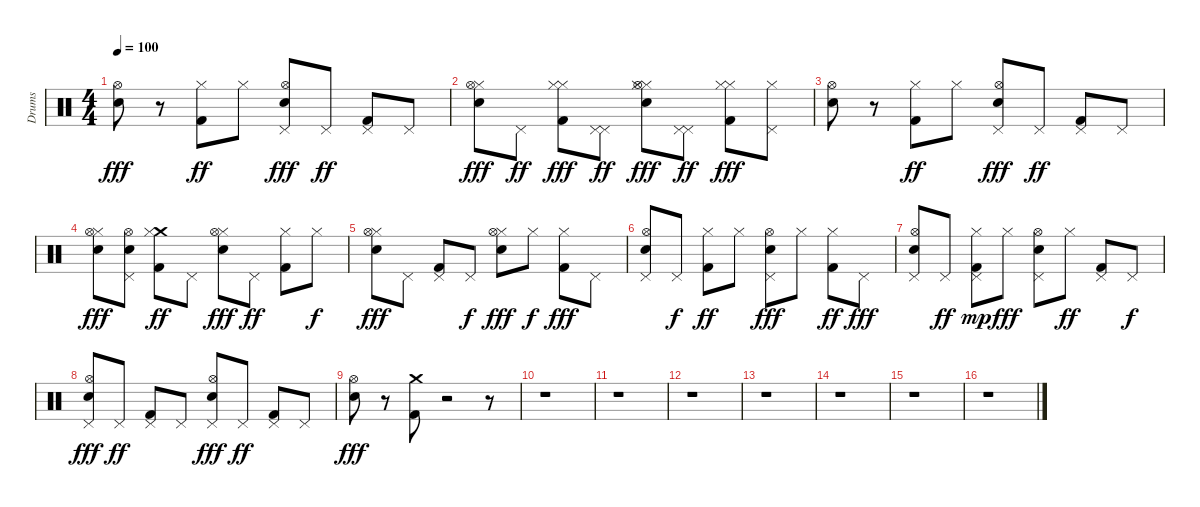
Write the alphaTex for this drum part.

\track ("Drums" "Drums") {instrument percussion}
\staff {score}
\articulation defaults
\ts (4 4)
\tempo 100
\clef neutral
\ks c
("Snare (hit) 2" "Hi-Hat (open)").8{dy fff} r.8 ("Kick (hit) 2" "Hi-Hat (closed)").8{dy ff} "Hi-Hat (closed)".8 ("Snare (hit) 2" "Pedal Hi-Hat (hit)" "Hi-Hat (open)").8{dy fff} "Pedal Hi-Hat (hit)".8{dy ff} ("Kick (hit) 2" "Pedal Hi-Hat (hit)").8 "Pedal Hi-Hat (hit)".8 |
("Snare (hit) 2" "Hi-Hat (closed)" "Hi-Hat (open)").8{dy fff} "Pedal Hi-Hat (hit)".8{dy ff} ("Kick (hit) 2" "Hi-Hat (closed)" "Hi-Hat (closed)").8{dy fff} ("Pedal Hi-Hat (hit)" "Pedal Hi-Hat (hit)").8{dy ff} ("Snare (hit) 2" "Hi-Hat (closed)" "Hi-Hat (closed)" "Hi-Hat (open)").8{dy fff} ("Pedal Hi-Hat (hit)" "Pedal Hi-Hat (hit)").8{dy ff} ("Kick (hit) 2" "Hi-Hat (closed)" "Hi-Hat (closed)").8{dy fff} ("Hi-Hat (closed)" "Pedal Hi-Hat (hit)").8 |
("Snare (hit) 2" "Hi-Hat (open)").8 r.8 ("Kick (hit) 2" "Hi-Hat (closed)").8{dy ff} "Hi-Hat (closed)".8 ("Snare (hit) 2" "Pedal Hi-Hat (hit)" "Hi-Hat (open)").8{dy fff} "Pedal Hi-Hat (hit)".8{dy ff} ("Kick (hit) 2" "Pedal Hi-Hat (hit)").8 "Pedal Hi-Hat (hit)".8 |
("Snare (hit) 2" "Hi-Hat (closed)" "Hi-Hat (open)").8{dy fff} ("Snare (hit) 2" "Pedal Hi-Hat (hit)" "Hi-Hat (open)").8 ("Kick (hit) 2" "Crash medium (hit)" "Hi-Hat (closed)").8{dy ff} "Pedal Hi-Hat (hit)".8 ("Snare (hit) 2" "Hi-Hat (closed)" "Hi-Hat (open)").8{dy fff} "Pedal Hi-Hat (hit)".8{dy ff} ("Kick (hit) 2" "Hi-Hat (closed)").8 "Hi-Hat (closed)".8{dy f} |
("Snare (hit) 2" "Hi-Hat (closed)" "Hi-Hat (open)").8{dy fff} "Pedal Hi-Hat (hit)".8 ("Kick (hit) 2" "Pedal Hi-Hat (hit)").8 "Pedal Hi-Hat (hit)".8{dy f} ("Snare (hit) 2" "Hi-Hat (closed)" "Hi-Hat (open)").8{dy fff} "Hi-Hat (closed)".8{dy f} ("Kick (hit) 2" "Hi-Hat (closed)").8{dy fff} "Pedal Hi-Hat (hit)".8 |
("Snare (hit) 2" "Pedal Hi-Hat (hit)" "Hi-Hat (open)").8 "Pedal Hi-Hat (hit)".8{dy f} ("Kick (hit) 2" "Hi-Hat (closed)").8{dy ff} "Hi-Hat (closed)".8 ("Snare (hit) 2" "Pedal Hi-Hat (hit)" "Hi-Hat (open)").8{dy fff} "Hi-Hat (closed)".8 ("Kick (hit) 2" "Hi-Hat (closed)").8{dy ff} "Pedal Hi-Hat (hit)".8{dy fff} |
("Snare (hit) 2" "Pedal Hi-Hat (hit)" "Hi-Hat (open)").8 "Pedal Hi-Hat (hit)".8{dy ff} ("Kick (hit) 2" "Hi-Hat (closed)" "Pedal Hi-Hat (hit)").8{dy mp} "Hi-Hat (closed)".8{dy fff} ("Snare (hit) 2" "Pedal Hi-Hat (hit)" "Hi-Hat (open)").8 "Hi-Hat (closed)".8{dy ff} ("Kick (hit) 2" "Pedal Hi-Hat (hit)").8 "Pedal Hi-Hat (hit)".8{dy f} |
("Snare (hit) 2" "Pedal Hi-Hat (hit)" "Hi-Hat (open)").8{dy fff} "Pedal Hi-Hat (hit)".8{dy ff} ("Kick (hit) 2" "Pedal Hi-Hat (hit)").8 "Pedal Hi-Hat (hit)".8 ("Snare (hit) 2" "Pedal Hi-Hat (hit)" "Hi-Hat (open)").8{dy fff} "Pedal Hi-Hat (hit)".8{dy ff} ("Kick (hit) 2" "Pedal Hi-Hat (hit)").8 "Pedal Hi-Hat (hit)".8 |
("Snare (hit) 2" "Hi-Hat (open)").8{dy fff} r.8 ("Kick (hit) 2" "Crash medium (hit)").8 r.2 r.8 |
r.1 |
r.1 |
r.1 |
r.1 |
r.1 |
r.1 |
r.1
